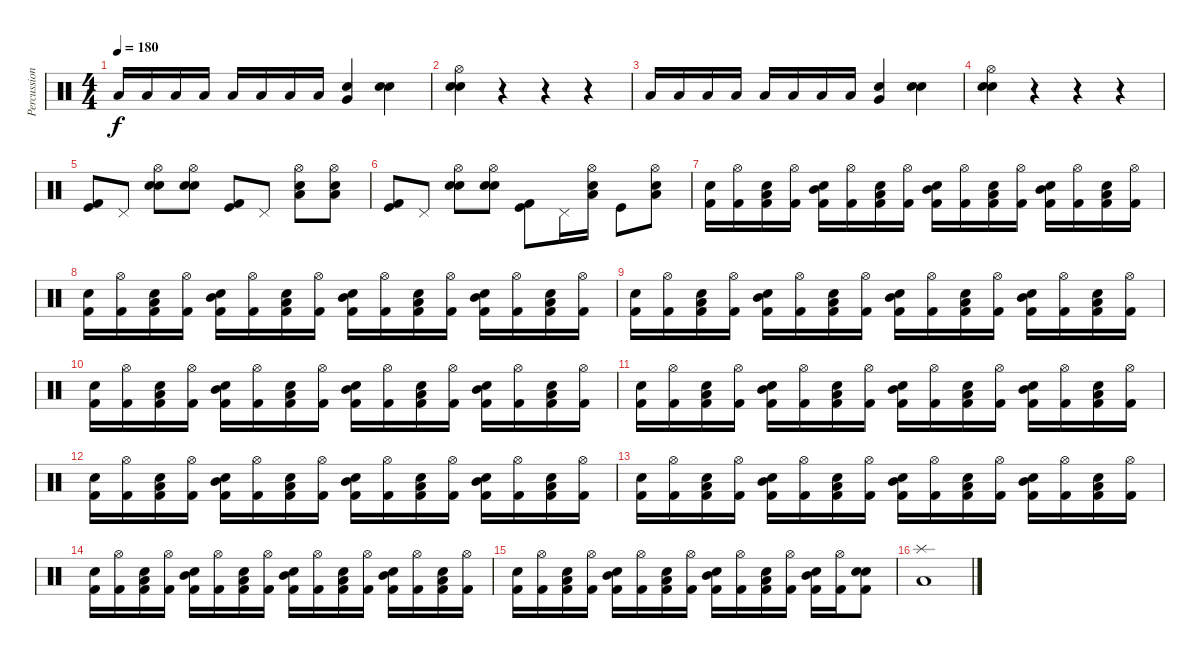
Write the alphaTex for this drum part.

\track ("Percussion" "Percussion") {instrument percussion}
\staff {score}
\articulation defaults
\ts (4 4)
\tempo 180
\clef neutral
\ks c "Low Tom (hit)".16{dy f} "Low Tom (hit)".16 "Low Tom (hit)".16 "Low Tom (hit)".16 "Low Tom (hit)".16 "Low Tom (hit)".16 "Low Tom (hit)".16 "Low Tom (hit)".16
("Very Low Tom (hit)" "Snare (hit) 2").4 ("Electric Snare (hit)" "Snare (hit) 2").4 |
("Hi-Hat (open)" "Electric Snare (hit)" "Snare (hit) 2").4 r.4 r.4 r.4 |
"Low Tom (hit)".16 "Low Tom (hit)".16 "Low Tom (hit)".16 "Low Tom (hit)".16 "Low Tom (hit)".16 "Low Tom (hit)".16 "Low Tom (hit)".16 "Low Tom (hit)".16 ("Very Low Tom (hit)" "Snare (hit) 2").4 ("Electric Snare (hit)" "Snare (hit) 2").4 |
("Hi-Hat (open)" "Electric Snare (hit)" "Snare (hit) 2").4 r.4 r.4 r.4 |
("Kick (hit) 2" "Kick (hit)").8 "Pedal Hi-Hat (hit)".8 ("Hi-Hat (open)" "Electric Snare (hit)" "Snare (hit) 2").8 ("Hi-Hat (open)" "Electric Snare (hit)" "Snare (hit) 2").8 ("Kick (hit)" "Kick (hit) 2").8 "Pedal Hi-Hat (hit)".8 ("Low Tom (hit)" "Electric Snare (hit)" "Hi-Hat (open)").8 ("Low Tom (hit)" "Electric Snare (hit)" "Hi-Hat (open)").8 |
("Kick (hit) 2" "Kick (hit)").8 "Pedal Hi-Hat (hit)".8 ("Hi-Hat (open)" "Electric Snare (hit)" "Snare (hit) 2").8 ("Hi-Hat (open)" "Electric Snare (hit)" "Snare (hit) 2").8 ("Kick (hit)" "Kick (hit) 2").8 "Pedal Hi-Hat (hit)".16 ("Low Tom (hit)" "Electric Snare (hit)" "Hi-Hat (open)").16 "Kick (hit)".8 ("Low Tom (hit)" "Electric Snare (hit)" "Hi-Hat (open)").8 |
("Electric Snare (hit)" "Kick (hit) 2").16 ("Hi-Hat (open)" "Kick (hit) 2").16 ("Snare (hit) 2" "Low Tom (hit)" "Kick (hit) 2").16 ("Hi-Hat (open)" "Kick (hit) 2").16 ("Electric Snare (hit)" "Mid Tom (hit)" "Kick (hit) 2").16 ("Hi-Hat (open)" "Kick (hit) 2").16 ("Snare (hit) 2" "Low Tom (hit)" "Kick (hit) 2").16 ("Hi-Hat (open)" "Kick (hit) 2").16 ("Electric Snare (hit)" "Mid Tom (hit)" "Kick (hit) 2").16 ("Hi-Hat (open)" "Kick (hit) 2").16 ("Snare (hit) 2" "Low Tom (hit)" "Kick (hit) 2").16 ("Hi-Hat (open)" "Kick (hit) 2").16 ("Electric Snare (hit)" "Mid Tom (hit)" "Kick (hit) 2").16 ("Hi-Hat (open)" "Kick (hit) 2").16 ("Snare (hit) 2" "Low Tom (hit)" "Kick (hit) 2").16 ("Hi-Hat (open)" "Kick (hit) 2").16 |
("Electric Snare (hit)" "Kick (hit) 2").16 ("Hi-Hat (open)" "Kick (hit) 2").16 ("Snare (hit) 2" "Low Tom (hit)" "Kick (hit) 2").16 ("Hi-Hat (open)" "Kick (hit) 2").16 ("Electric Snare (hit)" "Mid Tom (hit)" "Kick (hit) 2").16 ("Hi-Hat (open)" "Kick (hit) 2").16 ("Snare (hit) 2" "Low Tom (hit)" "Kick (hit) 2").16 ("Hi-Hat (open)" "Kick (hit) 2").16 ("Electric Snare (hit)" "Mid Tom (hit)" "Kick (hit) 2").16 ("Hi-Hat (open)" "Kick (hit) 2").16 ("Snare (hit) 2" "Low Tom (hit)" "Kick (hit) 2").16 ("Hi-Hat (open)" "Kick (hit) 2").16 ("Electric Snare (hit)" "Mid Tom (hit)" "Kick (hit) 2").16 ("Hi-Hat (open)" "Kick (hit) 2").16 ("Snare (hit) 2" "Low Tom (hit)" "Kick (hit) 2").16 ("Hi-Hat (open)" "Kick (hit) 2").16 |
("Electric Snare (hit)" "Kick (hit) 2").16 ("Hi-Hat (open)" "Kick (hit) 2").16 ("Snare (hit) 2" "Low Tom (hit)" "Kick (hit) 2").16 ("Hi-Hat (open)" "Kick (hit) 2").16 ("Electric Snare (hit)" "Mid Tom (hit)" "Kick (hit) 2").16 ("Hi-Hat (open)" "Kick (hit) 2").16 ("Snare (hit) 2" "Low Tom (hit)" "Kick (hit) 2").16 ("Hi-Hat (open)" "Kick (hit) 2").16 ("Electric Snare (hit)" "Mid Tom (hit)" "Kick (hit) 2").16 ("Hi-Hat (open)" "Kick (hit) 2").16 ("Snare (hit) 2" "Low Tom (hit)" "Kick (hit) 2").16 ("Hi-Hat (open)" "Kick (hit) 2").16 ("Electric Snare (hit)" "Mid Tom (hit)" "Kick (hit) 2").16 ("Hi-Hat (open)" "Kick (hit) 2").16 ("Snare (hit) 2" "Low Tom (hit)" "Kick (hit) 2").16 ("Hi-Hat (open)" "Kick (hit) 2").16 |
("Electric Snare (hit)" "Kick (hit) 2").16 ("Hi-Hat (open)" "Kick (hit) 2").16 ("Snare (hit) 2" "Low Tom (hit)" "Kick (hit) 2").16 ("Hi-Hat (open)" "Kick (hit) 2").16 ("Electric Snare (hit)" "Mid Tom (hit)" "Kick (hit) 2").16 ("Hi-Hat (open)" "Kick (hit) 2").16 ("Snare (hit) 2" "Low Tom (hit)" "Kick (hit) 2").16 ("Hi-Hat (open)" "Kick (hit) 2").16 ("Electric Snare (hit)" "Mid Tom (hit)" "Kick (hit) 2").16 ("Hi-Hat (open)" "Kick (hit) 2").16 ("Snare (hit) 2" "Low Tom (hit)" "Kick (hit) 2").16 ("Hi-Hat (open)" "Kick (hit) 2").16 ("Electric Snare (hit)" "Mid Tom (hit)" "Kick (hit) 2").16 ("Hi-Hat (open)" "Kick (hit) 2").16 ("Snare (hit) 2" "Low Tom (hit)" "Kick (hit) 2").16 ("Hi-Hat (open)" "Kick (hit) 2").16 |
("Electric Snare (hit)" "Kick (hit) 2").16 ("Hi-Hat (open)" "Kick (hit) 2").16 ("Snare (hit) 2" "Low Tom (hit)" "Kick (hit) 2").16 ("Hi-Hat (open)" "Kick (hit) 2").16 ("Electric Snare (hit)" "Mid Tom (hit)" "Kick (hit) 2").16 ("Hi-Hat (open)" "Kick (hit) 2").16 ("Snare (hit) 2" "Low Tom (hit)" "Kick (hit) 2").16 ("Hi-Hat (open)" "Kick (hit) 2").16 ("Electric Snare (hit)" "Mid Tom (hit)" "Kick (hit) 2").16 ("Hi-Hat (open)" "Kick (hit) 2").16 ("Snare (hit) 2" "Low Tom (hit)" "Kick (hit) 2").16 ("Hi-Hat (open)" "Kick (hit) 2").16 ("Electric Snare (hit)" "Mid Tom (hit)" "Kick (hit) 2").16 ("Hi-Hat (open)" "Kick (hit) 2").16 ("Snare (hit) 2" "Low Tom (hit)" "Kick (hit) 2").16 ("Hi-Hat (open)" "Kick (hit) 2").16 |
("Electric Snare (hit)" "Kick (hit) 2").16 ("Hi-Hat (open)" "Kick (hit) 2").16 ("Snare (hit) 2" "Low Tom (hit)" "Kick (hit) 2").16 ("Hi-Hat (open)" "Kick (hit) 2").16 ("Electric Snare (hit)" "Mid Tom (hit)" "Kick (hit) 2").16 ("Hi-Hat (open)" "Kick (hit) 2").16 ("Snare (hit) 2" "Low Tom (hit)" "Kick (hit) 2").16 ("Hi-Hat (open)" "Kick (hit) 2").16 ("Electric Snare (hit)" "Mid Tom (hit)" "Kick (hit) 2").16 ("Hi-Hat (open)" "Kick (hit) 2").16 ("Snare (hit) 2" "Low Tom (hit)" "Kick (hit) 2").16 ("Hi-Hat (open)" "Kick (hit) 2").16 ("Electric Snare (hit)" "Mid Tom (hit)" "Kick (hit) 2").16 ("Hi-Hat (open)" "Kick (hit) 2").16 ("Snare (hit) 2" "Low Tom (hit)" "Kick (hit) 2").16 ("Hi-Hat (open)" "Kick (hit) 2").16 |
("Electric Snare (hit)" "Kick (hit) 2").16 ("Hi-Hat (open)" "Kick (hit) 2").16 ("Snare (hit) 2" "Low Tom (hit)" "Kick (hit) 2").16 ("Hi-Hat (open)" "Kick (hit) 2").16 ("Electric Snare (hit)" "Mid Tom (hit)" "Kick (hit) 2").16 ("Hi-Hat (open)" "Kick (hit) 2").16 ("Snare (hit) 2" "Low Tom (hit)" "Kick (hit) 2").16 ("Hi-Hat (open)" "Kick (hit) 2").16 ("Electric Snare (hit)" "Mid Tom (hit)" "Kick (hit) 2").16 ("Hi-Hat (open)" "Kick (hit) 2").16 ("Snare (hit) 2" "Low Tom (hit)" "Kick (hit) 2").16 ("Hi-Hat (open)" "Kick (hit) 2").16 ("Electric Snare (hit)" "Mid Tom (hit)" "Kick (hit) 2").16 ("Hi-Hat (open)" "Kick (hit) 2").16 ("Snare (hit) 2" "Low Tom (hit)" "Kick (hit) 2").16 ("Hi-Hat (open)" "Kick (hit) 2").16 |
("Electric Snare (hit)" "Kick (hit) 2").16 ("Hi-Hat (open)" "Kick (hit) 2").16 ("Snare (hit) 2" "Low Tom (hit)" "Kick (hit) 2").16 ("Hi-Hat (open)" "Kick (hit) 2").16 ("Electric Snare (hit)" "Mid Tom (hit)" "Kick (hit) 2").16 ("Hi-Hat (open)" "Kick (hit) 2").16 ("Snare (hit) 2" "Low Tom (hit)" "Kick (hit) 2").16 ("Hi-Hat (open)" "Kick (hit) 2").16 ("Electric Snare (hit)" "Mid Tom (hit)" "Kick (hit) 2").16 ("Hi-Hat (open)" "Kick (hit) 2").16 ("Snare (hit) 2" "Low Tom (hit)" "Kick (hit) 2").16 ("Hi-Hat (open)" "Kick (hit) 2").16 ("Electric Snare (hit)" "Mid Tom (hit)" "Kick (hit) 2").16 ("Hi-Hat (open)" "Kick (hit) 2").16 ("Snare (hit) 2" "Low Tom (hit)" "Kick (hit) 2").16 ("Hi-Hat (open)" "Kick (hit) 2").16 |
("Electric Snare (hit)" "Kick (hit) 2").16 ("Hi-Hat (open)" "Kick (hit) 2").16 ("Snare (hit) 2" "Low Tom (hit)" "Kick (hit) 2").16 ("Hi-Hat (open)" "Kick (hit) 2").16 ("Electric Snare (hit)" "Mid Tom (hit)" "Kick (hit) 2").16 ("Hi-Hat (open)" "Kick (hit) 2").16 ("Snare (hit) 2" "Low Tom (hit)" "Kick (hit) 2").16 ("Hi-Hat (open)" "Kick (hit) 2").16 ("Electric Snare (hit)" "Mid Tom (hit)" "Kick (hit) 2").16 ("Hi-Hat (open)" "Kick (hit) 2").16 ("Snare (hit) 2" "Low Tom (hit)" "Kick (hit) 2").16 ("Hi-Hat (open)" "Kick (hit) 2").16 ("Electric Snare (hit)" "Mid Tom (hit)" "Kick (hit) 2").16 ("Hi-Hat (open)" "Kick (hit) 2").16 ("Electric Snare (hit)" "Snare (hit) 2" "Kick (hit) 2").8 |
("Splash (hit)" "Low Tom (hit)").1
